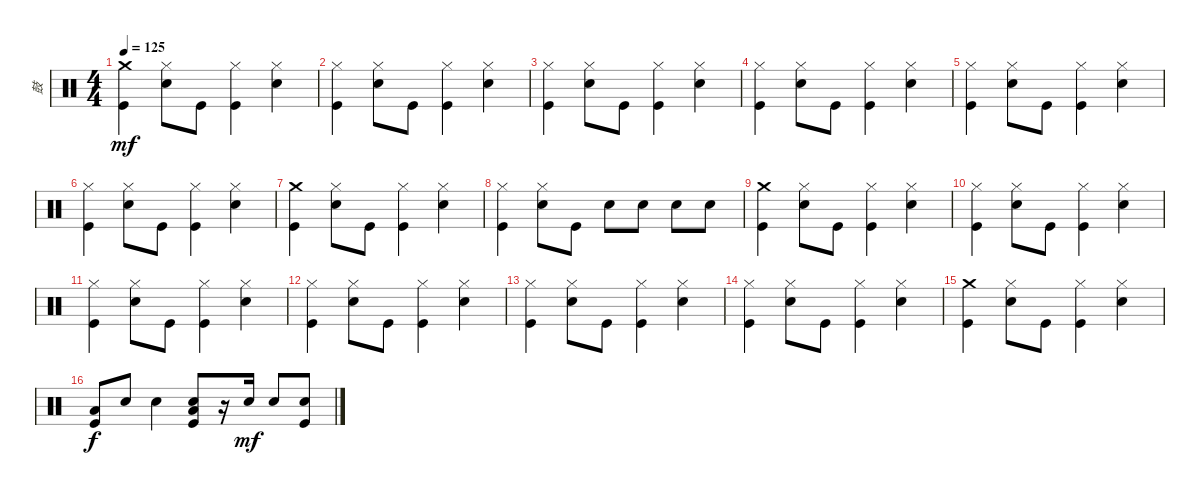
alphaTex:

\track ("鼓" "鼓") {instrument percussion}
\staff {score}
\articulation defaults
\ts (4 4)
\tempo 125
\clef neutral
\ks c
("Kick (hit)" "Crash medium (hit)").4{dy mf} ("Snare (hit) 2" "Hi-Hat (closed)").8 "Kick (hit)".8 ("Kick (hit)" "Hi-Hat (closed)").4 ("Snare (hit) 2" "Hi-Hat (closed)").4 |
("Kick (hit)" "Hi-Hat (closed)").4 ("Snare (hit) 2" "Hi-Hat (closed)").8 "Kick (hit)".8 ("Kick (hit)" "Hi-Hat (closed)").4 ("Snare (hit) 2" "Hi-Hat (closed)").4 |
("Kick (hit)" "Hi-Hat (closed)").4 ("Snare (hit) 2" "Hi-Hat (closed)").8 "Kick (hit)".8 ("Kick (hit)" "Hi-Hat (closed)").4 ("Snare (hit) 2" "Hi-Hat (closed)").4 |
("Kick (hit)" "Hi-Hat (closed)").4 ("Snare (hit) 2" "Hi-Hat (closed)").8 "Kick (hit)".8 ("Kick (hit)" "Hi-Hat (closed)").4 ("Snare (hit) 2" "Hi-Hat (closed)").4 |
("Kick (hit)" "Hi-Hat (closed)").4 ("Snare (hit) 2" "Hi-Hat (closed)").8 "Kick (hit)".8 ("Kick (hit)" "Hi-Hat (closed)").4 ("Snare (hit) 2" "Hi-Hat (closed)").4 |
("Kick (hit)" "Hi-Hat (closed)").4 ("Snare (hit) 2" "Hi-Hat (closed)").8 "Kick (hit)".8 ("Kick (hit)" "Hi-Hat (closed)").4 ("Snare (hit) 2" "Hi-Hat (closed)").4 |
("Kick (hit)" "Crash medium (hit)").4 ("Snare (hit) 2" "Hi-Hat (closed)").8 "Kick (hit)".8 ("Kick (hit)" "Hi-Hat (closed)").4 ("Snare (hit) 2" "Hi-Hat (closed)").4 |
("Kick (hit)" "Hi-Hat (closed)").4 ("Snare (hit) 2" "Hi-Hat (closed)").8 "Kick (hit)".8 "Snare (hit) 2".8 "Snare (hit) 2".8 "Snare (hit) 2".8 "Snare (hit) 2".8 |
("Kick (hit)" "Crash medium (hit)").4 ("Snare (hit) 2" "Hi-Hat (closed)").8 "Kick (hit)".8 ("Kick (hit)" "Hi-Hat (closed)").4 ("Snare (hit) 2" "Hi-Hat (closed)").4 |
("Kick (hit)" "Hi-Hat (closed)").4 ("Snare (hit) 2" "Hi-Hat (closed)").8 "Kick (hit)".8 ("Kick (hit)" "Hi-Hat (closed)").4 ("Snare (hit) 2" "Hi-Hat (closed)").4 |
("Kick (hit)" "Hi-Hat (closed)").4 ("Snare (hit) 2" "Hi-Hat (closed)").8 "Kick (hit)".8 ("Kick (hit)" "Hi-Hat (closed)").4 ("Snare (hit) 2" "Hi-Hat (closed)").4 |
("Kick (hit)" "Hi-Hat (closed)").4 ("Snare (hit) 2" "Hi-Hat (closed)").8 "Kick (hit)".8 ("Kick (hit)" "Hi-Hat (closed)").4 ("Snare (hit) 2" "Hi-Hat (closed)").4 |
("Kick (hit)" "Hi-Hat (closed)").4 ("Snare (hit) 2" "Hi-Hat (closed)").8 "Kick (hit)".8 ("Kick (hit)" "Hi-Hat (closed)").4 ("Snare (hit) 2" "Hi-Hat (closed)").4 |
("Kick (hit)" "Hi-Hat (closed)").4 ("Snare (hit) 2" "Hi-Hat (closed)").8 "Kick (hit)".8 ("Kick (hit)" "Hi-Hat (closed)").4 ("Snare (hit) 2" "Hi-Hat (closed)").4 |
("Kick (hit)" "Crash medium (hit)").4 ("Snare (hit) 2" "Hi-Hat (closed)").8 "Kick (hit)".8 ("Kick (hit)" "Hi-Hat (closed)").4 ("Snare (hit) 2" "Hi-Hat (closed)").4 |
("Kick (hit)" "Low Tom (hit)").8{dy f} "Snare (hit) 2".8 "Snare (hit) 2".4 ("Kick (hit)" "Low Floor Tom (hit)" "Snare (hit) 2").8 r.16 "Snare (hit) 2".16{dy mf} "Snare (hit) 2".8 ("Snare (hit) 2" "Kick (hit)").8
